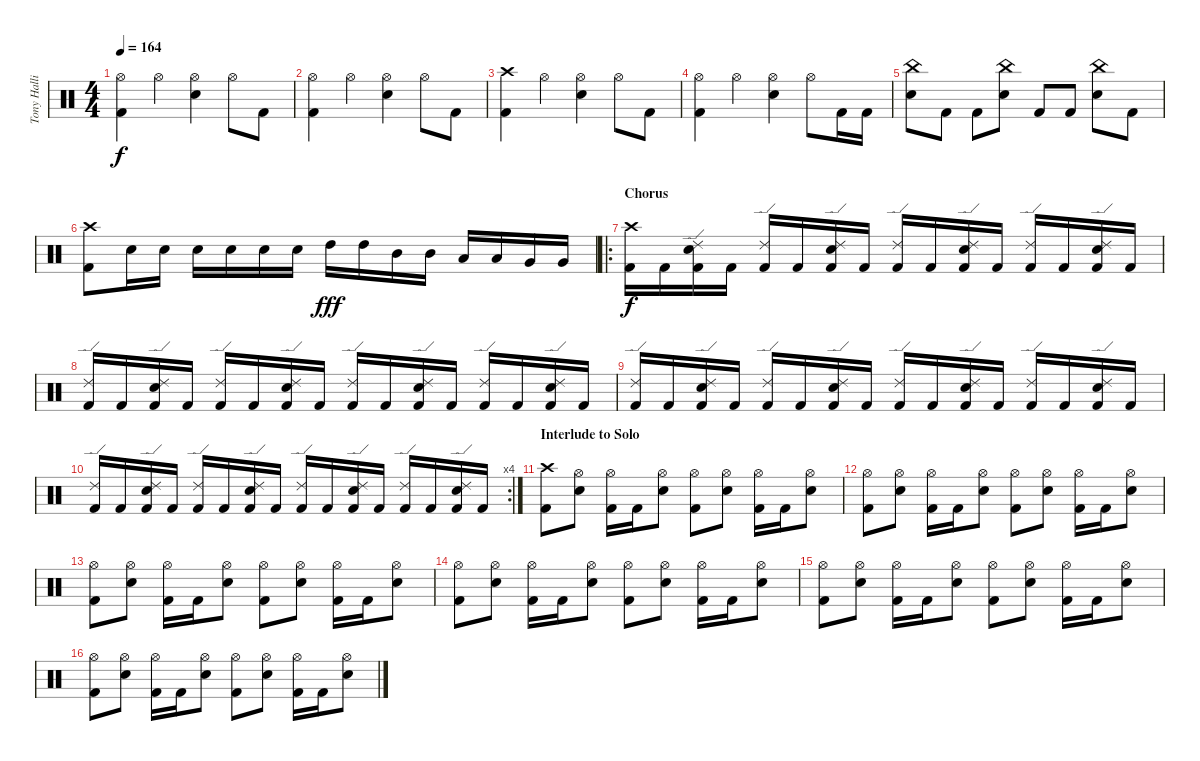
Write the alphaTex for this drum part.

\track ("Tony Hallio - Drums" "Tony Halli") {instrument percussion}
\staff {score}
\articulation defaults
\ts (4 4)
\tempo 164
\clef neutral
\ks c
("Hi-Hat (open)" "Kick (hit) 2").4{dy f} "Hi-Hat (open)".4 ("Hi-Hat (open)" "Electric Snare (hit)").4 "Hi-Hat (open)".8 "Kick (hit) 2".8 |
("Hi-Hat (open)" "Kick (hit) 2").4 "Hi-Hat (open)".4 ("Hi-Hat (open)" "Electric Snare (hit)").4 "Hi-Hat (open)".8 "Kick (hit) 2".8 |
("Crash high (hit)" "Kick (hit) 2").4 "Hi-Hat (open)".4 ("Hi-Hat (open)" "Electric Snare (hit)").4 "Hi-Hat (open)".8 "Kick (hit) 2".8 |
("Hi-Hat (open)" "Kick (hit) 2").4 "Hi-Hat (open)".4 ("Hi-Hat (open)" "Electric Snare (hit)").4 "Hi-Hat (open)".8 "Kick (hit) 2".16 "Kick (hit) 2".16 |
("China (hit)" "Electric Snare (hit)").8 "Kick (hit) 2".8 "Kick (hit) 2".8 ("China (hit)" "Electric Snare (hit)").8 "Kick (hit) 2".8 "Kick (hit) 2".8 ("China (hit)" "Electric Snare (hit)").8 "Kick (hit) 2".8 |
("Crash high (hit)" "Kick (hit) 2").8 "Electric Snare (hit)".16 "Electric Snare (hit)".16 "Electric Snare (hit)".16 "Electric Snare (hit)".16 "Electric Snare (hit)".16 "Electric Snare (hit)".16 "High Tom (hit)".16{dy fff} "High Tom (hit)".16 "Mid Tom (hit)".16 "Mid Tom (hit)".16 "Low Tom (hit)".16 "Low Tom (hit)".16 "Very Low Tom (hit)".16 "Very Low Tom (hit)".16 |
\ro
\section ("" "Chorus")
("Crash high (hit)" "Kick (hit) 2").16{dy f} "Kick (hit) 2".16 ("Ride (edge) 2" "Electric Snare (hit)" "Kick (hit) 2").16 "Kick (hit) 2".16 ("Ride (edge) 2" "Kick (hit) 2").16 "Kick (hit) 2".16 ("Ride (edge) 2" "Electric Snare (hit)" "Kick (hit) 2").16 "Kick (hit) 2".16 ("Ride (edge) 2" "Kick (hit) 2").16 "Kick (hit) 2".16 ("Ride (edge) 2" "Electric Snare (hit)" "Kick (hit) 2").16 "Kick (hit) 2".16 ("Ride (edge) 2" "Kick (hit) 2").16 "Kick (hit) 2".16 ("Ride (edge) 2" "Electric Snare (hit)" "Kick (hit) 2").16 "Kick (hit) 2".16 |
("Ride (edge) 2" "Kick (hit) 2").16 "Kick (hit) 2".16 ("Ride (edge) 2" "Electric Snare (hit)" "Kick (hit) 2").16 "Kick (hit) 2".16 ("Ride (edge) 2" "Kick (hit) 2").16 "Kick (hit) 2".16 ("Ride (edge) 2" "Electric Snare (hit)" "Kick (hit) 2").16 "Kick (hit) 2".16 ("Ride (edge) 2" "Kick (hit) 2").16 "Kick (hit) 2".16 ("Ride (edge) 2" "Electric Snare (hit)" "Kick (hit) 2").16 "Kick (hit) 2".16 ("Ride (edge) 2" "Kick (hit) 2").16 "Kick (hit) 2".16 ("Ride (edge) 2" "Electric Snare (hit)" "Kick (hit) 2").16 "Kick (hit) 2".16 |
("Ride (edge) 2" "Kick (hit) 2").16 "Kick (hit) 2".16 ("Ride (edge) 2" "Electric Snare (hit)" "Kick (hit) 2").16 "Kick (hit) 2".16 ("Ride (edge) 2" "Kick (hit) 2").16 "Kick (hit) 2".16 ("Ride (edge) 2" "Electric Snare (hit)" "Kick (hit) 2").16 "Kick (hit) 2".16 ("Ride (edge) 2" "Kick (hit) 2").16 "Kick (hit) 2".16 ("Ride (edge) 2" "Electric Snare (hit)" "Kick (hit) 2").16 "Kick (hit) 2".16 ("Ride (edge) 2" "Kick (hit) 2").16 "Kick (hit) 2".16 ("Ride (edge) 2" "Electric Snare (hit)" "Kick (hit) 2").16 "Kick (hit) 2".16 |
\rc 4
("Ride (edge) 2" "Kick (hit) 2").16 "Kick (hit) 2".16 ("Ride (edge) 2" "Electric Snare (hit)" "Kick (hit) 2").16 "Kick (hit) 2".16 ("Ride (edge) 2" "Kick (hit) 2").16 "Kick (hit) 2".16 ("Ride (edge) 2" "Electric Snare (hit)" "Kick (hit) 2").16 "Kick (hit) 2".16 ("Ride (edge) 2" "Kick (hit) 2").16 "Kick (hit) 2".16 ("Ride (edge) 2" "Electric Snare (hit)" "Kick (hit) 2").16 "Kick (hit) 2".16 ("Ride (edge) 2" "Kick (hit) 2").16 "Kick (hit) 2".16 ("Ride (edge) 2" "Electric Snare (hit)" "Kick (hit) 2").16 "Kick (hit) 2".16 |
\section ("" "Interlude to Solo")
("Crash high (hit)" "Kick (hit) 2").8 ("Hi-Hat (open)" "Electric Snare (hit)").8 ("Hi-Hat (open)" "Kick (hit) 2").16 "Kick (hit) 2".16 ("Hi-Hat (open)" "Electric Snare (hit)").8 ("Hi-Hat (open)" "Kick (hit) 2").8 ("Hi-Hat (open)" "Electric Snare (hit)").8 ("Hi-Hat (open)" "Kick (hit) 2").16 "Kick (hit) 2".16 ("Hi-Hat (open)" "Electric Snare (hit)").8 |
("Hi-Hat (open)" "Kick (hit) 2").8 ("Hi-Hat (open)" "Electric Snare (hit)").8 ("Hi-Hat (open)" "Kick (hit) 2").16 "Kick (hit) 2".16 ("Hi-Hat (open)" "Electric Snare (hit)").8 ("Hi-Hat (open)" "Kick (hit) 2").8 ("Hi-Hat (open)" "Electric Snare (hit)").8 ("Hi-Hat (open)" "Kick (hit) 2").16 "Kick (hit) 2".16 ("Hi-Hat (open)" "Electric Snare (hit)").8 |
("Hi-Hat (open)" "Kick (hit) 2").8 ("Hi-Hat (open)" "Electric Snare (hit)").8 ("Hi-Hat (open)" "Kick (hit) 2").16 "Kick (hit) 2".16 ("Hi-Hat (open)" "Electric Snare (hit)").8 ("Hi-Hat (open)" "Kick (hit) 2").8 ("Hi-Hat (open)" "Electric Snare (hit)").8 ("Hi-Hat (open)" "Kick (hit) 2").16 "Kick (hit) 2".16 ("Hi-Hat (open)" "Electric Snare (hit)").8 |
("Hi-Hat (open)" "Kick (hit) 2").8 ("Hi-Hat (open)" "Electric Snare (hit)").8 ("Hi-Hat (open)" "Kick (hit) 2").16 "Kick (hit) 2".16 ("Hi-Hat (open)" "Electric Snare (hit)").8 ("Hi-Hat (open)" "Kick (hit) 2").8 ("Hi-Hat (open)" "Electric Snare (hit)").8 ("Hi-Hat (open)" "Kick (hit) 2").16 "Kick (hit) 2".16 ("Hi-Hat (open)" "Electric Snare (hit)").8 |
("Hi-Hat (open)" "Kick (hit) 2").8 ("Hi-Hat (open)" "Electric Snare (hit)").8 ("Hi-Hat (open)" "Kick (hit) 2").16 "Kick (hit) 2".16 ("Hi-Hat (open)" "Electric Snare (hit)").8 ("Hi-Hat (open)" "Kick (hit) 2").8 ("Hi-Hat (open)" "Electric Snare (hit)").8 ("Hi-Hat (open)" "Kick (hit) 2").16 "Kick (hit) 2".16 ("Hi-Hat (open)" "Electric Snare (hit)").8 |
("Hi-Hat (open)" "Kick (hit) 2").8 ("Hi-Hat (open)" "Electric Snare (hit)").8 ("Hi-Hat (open)" "Kick (hit) 2").16 "Kick (hit) 2".16 ("Hi-Hat (open)" "Electric Snare (hit)").8 ("Hi-Hat (open)" "Kick (hit) 2").8 ("Hi-Hat (open)" "Electric Snare (hit)").8 ("Hi-Hat (open)" "Kick (hit) 2").16 "Kick (hit) 2".16 ("Hi-Hat (open)" "Electric Snare (hit)").8
